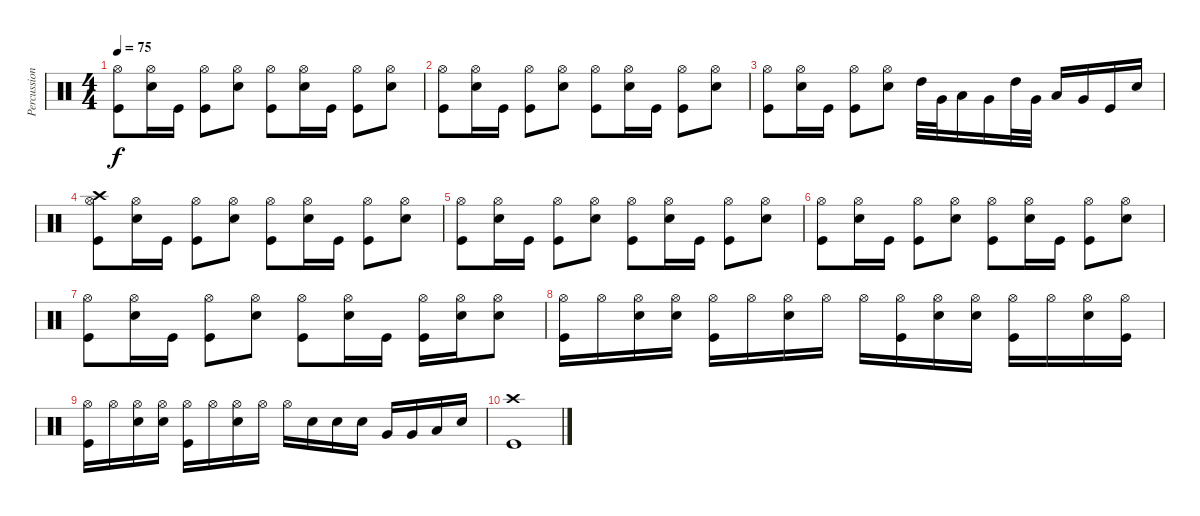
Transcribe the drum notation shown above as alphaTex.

\track ("Percussions" "Percussion") {instrument percussion}
\staff {score}
\articulation defaults
\ts (4 4)
\tempo 75
\clef neutral
\ks c
("Hi-Hat (open)" "Kick (hit)").8{dy f} ("Hi-Hat (open)" "Snare (hit) 2").16 "Kick (hit)".16 ("Hi-Hat (open)" "Kick (hit)").8 ("Hi-Hat (open)" "Snare (hit) 2").8 ("Hi-Hat (open)" "Kick (hit)").8 ("Hi-Hat (open)" "Snare (hit) 2").16 "Kick (hit)".16 ("Hi-Hat (open)" "Kick (hit)").8 ("Hi-Hat (open)" "Snare (hit) 2").8 |
("Hi-Hat (open)" "Kick (hit)").8 ("Hi-Hat (open)" "Snare (hit) 2").16 "Kick (hit)".16 ("Hi-Hat (open)" "Kick (hit)").8 ("Hi-Hat (open)" "Snare (hit) 2").8 ("Hi-Hat (open)" "Kick (hit)").8 ("Hi-Hat (open)" "Snare (hit) 2").16 "Kick (hit)".16 ("Hi-Hat (open)" "Kick (hit)").8 ("Hi-Hat (open)" "Snare (hit) 2").8 |
("Hi-Hat (open)" "Kick (hit)").8 ("Hi-Hat (open)" "Snare (hit) 2").16 "Kick (hit)".16 ("Hi-Hat (open)" "Kick (hit)").8 ("Hi-Hat (open)" "Snare (hit) 2").8 "High Tom (hit)".32 "Very Low Tom (hit)".32 "Low Floor Tom (hit)".16 "Very Low Tom (hit)".16 "High Tom (hit)".32 "Very Low Tom (hit)".32 "Low Floor Tom (hit)".16 "Very Low Tom (hit)".16 "Kick (hit)".16 "Electric Snare (hit)".16 |
("Crash high (hit)" "Hi-Hat (open)" "Kick (hit)").8 ("Hi-Hat (open)" "Snare (hit) 2").16 "Kick (hit)".16 ("Hi-Hat (open)" "Kick (hit)").8 ("Hi-Hat (open)" "Snare (hit) 2").8 ("Hi-Hat (open)" "Kick (hit)").8 ("Hi-Hat (open)" "Snare (hit) 2").16 "Kick (hit)".16 ("Hi-Hat (open)" "Kick (hit)").8 ("Hi-Hat (open)" "Snare (hit) 2").8 |
("Hi-Hat (open)" "Kick (hit)").8 ("Hi-Hat (open)" "Snare (hit) 2").16 "Kick (hit)".16 ("Hi-Hat (open)" "Kick (hit)").8 ("Hi-Hat (open)" "Snare (hit) 2").8 ("Hi-Hat (open)" "Kick (hit)").8 ("Hi-Hat (open)" "Snare (hit) 2").16 "Kick (hit)".16 ("Hi-Hat (open)" "Kick (hit)").8 ("Hi-Hat (open)" "Snare (hit) 2").8 |
("Hi-Hat (open)" "Kick (hit)").8 ("Hi-Hat (open)" "Snare (hit) 2").16 "Kick (hit)".16 ("Hi-Hat (open)" "Kick (hit)").8 ("Hi-Hat (open)" "Snare (hit) 2").8 ("Hi-Hat (open)" "Kick (hit)").8 ("Hi-Hat (open)" "Snare (hit) 2").16 "Kick (hit)".16 ("Hi-Hat (open)" "Kick (hit)").8 ("Hi-Hat (open)" "Snare (hit) 2").8 |
("Hi-Hat (open)" "Kick (hit)").8 ("Hi-Hat (open)" "Snare (hit) 2").16 "Kick (hit)".16 ("Hi-Hat (open)" "Kick (hit)").8 ("Hi-Hat (open)" "Snare (hit) 2").8 ("Hi-Hat (open)" "Kick (hit)").8 ("Hi-Hat (open)" "Snare (hit) 2").16 "Kick (hit)".16 ("Hi-Hat (open)" "Kick (hit)").16 ("Hi-Hat (open)" "Snare (hit) 2").16 ("Hi-Hat (open)" "Snare (hit) 2").8 |
("Hi-Hat (open)" "Kick (hit)").16 "Hi-Hat (open)".16 ("Hi-Hat (open)" "Snare (hit) 2").16 ("Hi-Hat (open)" "Snare (hit) 2").16 ("Hi-Hat (open)" "Kick (hit)").16 "Hi-Hat (open)".16 ("Hi-Hat (open)" "Snare (hit) 2").16 "Hi-Hat (open)".16 "Hi-Hat (open)".16 ("Hi-Hat (open)" "Kick (hit)").16 ("Hi-Hat (open)" "Snare (hit) 2").16 ("Hi-Hat (open)" "Snare (hit) 2").16 ("Hi-Hat (open)" "Kick (hit)").16 "Hi-Hat (open)".16 ("Hi-Hat (open)" "Snare (hit) 2").16 ("Hi-Hat (open)" "Kick (hit)").16 |
("Hi-Hat (open)" "Kick (hit)").16 "Hi-Hat (open)".16 ("Hi-Hat (open)" "Snare (hit) 2").16 ("Hi-Hat (open)" "Snare (hit) 2").16 ("Hi-Hat (open)" "Kick (hit)").16 "Hi-Hat (open)".16 ("Hi-Hat (open)" "Snare (hit) 2").16 "Hi-Hat (open)".16 "Hi-Hat (open)".16 "Snare (hit) 2".16 "Snare (hit) 2".16 "Snare (hit) 2".16 "Very Low Tom (hit)".16 "Very Low Tom (hit)".16 "Low Floor Tom (hit)".16 "Electric Snare (hit)".16 |
("Crash high (hit)" "Kick (hit)").1
